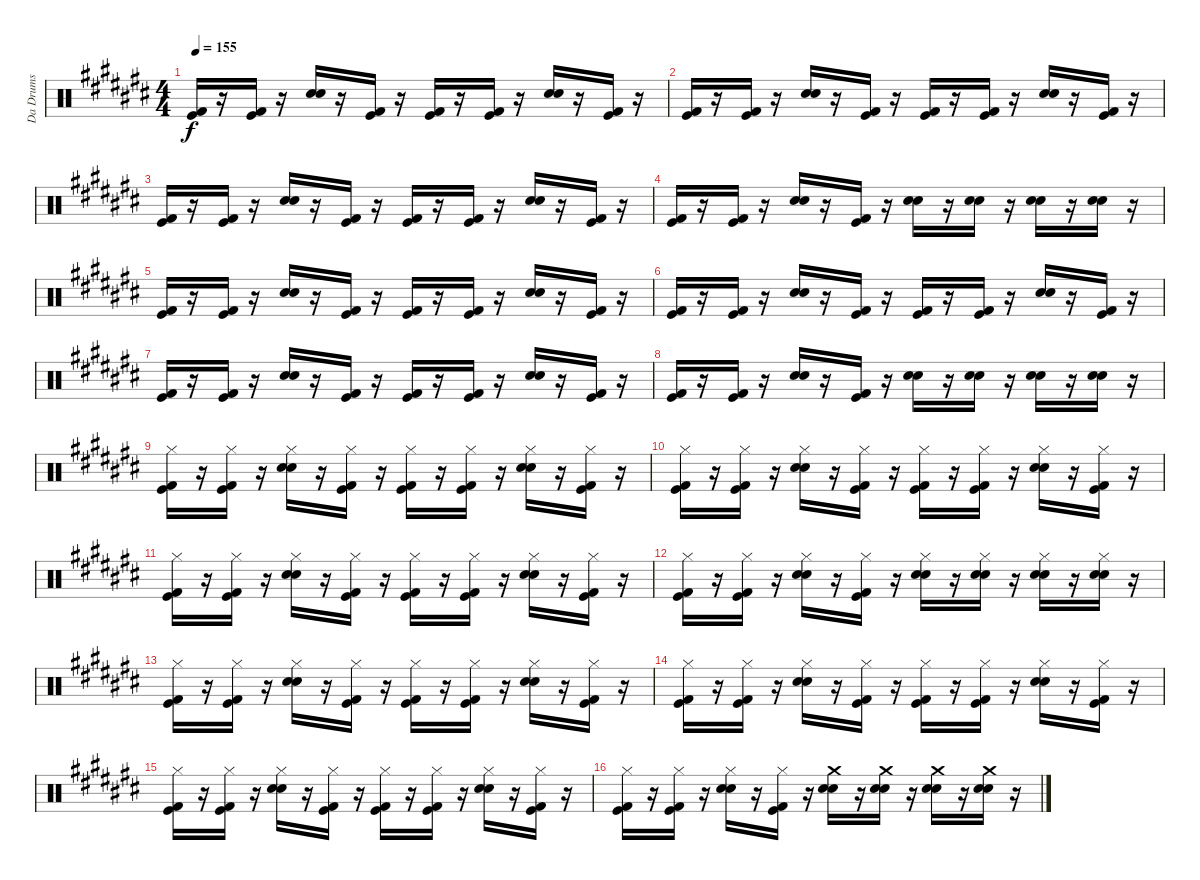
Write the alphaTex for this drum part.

\track ("Da Drums" "Da Drums") {instrument percussion}
\staff {score}
\articulation defaults
\ts (4 4)
\tempo 155
\clef neutral
\ks c#
("Kick (hit)" "Kick (hit) 2").16{dy f} r.16 ("Kick (hit)" "Kick (hit) 2").16 r.16 ("Electric Snare (hit)" "Snare (hit) 2").16 r.16 ("Kick (hit)" "Kick (hit) 2").16 r.16 ("Kick (hit)" "Kick (hit) 2").16 r.16 ("Kick (hit)" "Kick (hit) 2").16 r.16 ("Electric Snare (hit)" "Snare (hit) 2").16 r.16 ("Kick (hit)" "Kick (hit) 2").16 r.16 |
("Kick (hit)" "Kick (hit) 2").16 r.16 ("Kick (hit)" "Kick (hit) 2").16 r.16 ("Electric Snare (hit)" "Snare (hit) 2").16 r.16 ("Kick (hit)" "Kick (hit) 2").16 r.16 ("Kick (hit)" "Kick (hit) 2").16 r.16 ("Kick (hit)" "Kick (hit) 2").16 r.16 ("Electric Snare (hit)" "Snare (hit) 2").16 r.16 ("Kick (hit)" "Kick (hit) 2").16 r.16 |
("Kick (hit)" "Kick (hit) 2").16 r.16 ("Kick (hit)" "Kick (hit) 2").16 r.16 ("Electric Snare (hit)" "Snare (hit) 2").16 r.16 ("Kick (hit)" "Kick (hit) 2").16 r.16 ("Kick (hit)" "Kick (hit) 2").16 r.16 ("Kick (hit)" "Kick (hit) 2").16 r.16 ("Electric Snare (hit)" "Snare (hit) 2").16 r.16 ("Kick (hit)" "Kick (hit) 2").16 r.16 |
("Kick (hit)" "Kick (hit) 2").16 r.16 ("Kick (hit)" "Kick (hit) 2").16 r.16 ("Electric Snare (hit)" "Snare (hit) 2").16 r.16 ("Kick (hit)" "Kick (hit) 2").16 r.16 ("Electric Snare (hit)" "Snare (hit) 2").16 r.16 ("Electric Snare (hit)" "Snare (hit) 2").16 r.16 ("Electric Snare (hit)" "Snare (hit) 2").16 r.16 ("Electric Snare (hit)" "Snare (hit) 2").16 r.16 |
("Kick (hit)" "Kick (hit) 2").16 r.16 ("Kick (hit)" "Kick (hit) 2").16 r.16 ("Electric Snare (hit)" "Snare (hit) 2").16 r.16 ("Kick (hit)" "Kick (hit) 2").16 r.16 ("Kick (hit)" "Kick (hit) 2").16 r.16 ("Kick (hit)" "Kick (hit) 2").16 r.16 ("Electric Snare (hit)" "Snare (hit) 2").16 r.16 ("Kick (hit)" "Kick (hit) 2").16 r.16 |
("Kick (hit)" "Kick (hit) 2").16 r.16 ("Kick (hit)" "Kick (hit) 2").16 r.16 ("Electric Snare (hit)" "Snare (hit) 2").16 r.16 ("Kick (hit)" "Kick (hit) 2").16 r.16 ("Kick (hit)" "Kick (hit) 2").16 r.16 ("Kick (hit)" "Kick (hit) 2").16 r.16 ("Electric Snare (hit)" "Snare (hit) 2").16 r.16 ("Kick (hit)" "Kick (hit) 2").16 r.16 |
("Kick (hit)" "Kick (hit) 2").16 r.16 ("Kick (hit)" "Kick (hit) 2").16 r.16 ("Electric Snare (hit)" "Snare (hit) 2").16 r.16 ("Kick (hit)" "Kick (hit) 2").16 r.16 ("Kick (hit)" "Kick (hit) 2").16 r.16 ("Kick (hit)" "Kick (hit) 2").16 r.16 ("Electric Snare (hit)" "Snare (hit) 2").16 r.16 ("Kick (hit)" "Kick (hit) 2").16 r.16 |
("Kick (hit)" "Kick (hit) 2").16 r.16 ("Kick (hit)" "Kick (hit) 2").16 r.16 ("Electric Snare (hit)" "Snare (hit) 2").16 r.16 ("Kick (hit)" "Kick (hit) 2").16 r.16 ("Electric Snare (hit)" "Snare (hit) 2").16 r.16 ("Electric Snare (hit)" "Snare (hit) 2").16 r.16 ("Electric Snare (hit)" "Snare (hit) 2").16 r.16 ("Electric Snare (hit)" "Snare (hit) 2").16 r.16 |
("Hi-Hat (closed)" "Kick (hit)" "Kick (hit) 2").16 r.16 ("Hi-Hat (closed)" "Kick (hit)" "Kick (hit) 2").16 r.16 ("Hi-Hat (closed)" "Electric Snare (hit)" "Snare (hit) 2").16 r.16 ("Hi-Hat (closed)" "Kick (hit)" "Kick (hit) 2").16 r.16 ("Hi-Hat (closed)" "Kick (hit)" "Kick (hit) 2").16 r.16 ("Hi-Hat (closed)" "Kick (hit)" "Kick (hit) 2").16 r.16 ("Hi-Hat (closed)" "Electric Snare (hit)" "Snare (hit) 2").16 r.16 ("Hi-Hat (closed)" "Kick (hit)" "Kick (hit) 2").16 r.16 |
("Hi-Hat (closed)" "Kick (hit)" "Kick (hit) 2").16 r.16 ("Hi-Hat (closed)" "Kick (hit)" "Kick (hit) 2").16 r.16 ("Hi-Hat (closed)" "Electric Snare (hit)" "Snare (hit) 2").16 r.16 ("Hi-Hat (closed)" "Kick (hit)" "Kick (hit) 2").16 r.16 ("Hi-Hat (closed)" "Kick (hit)" "Kick (hit) 2").16 r.16 ("Hi-Hat (closed)" "Kick (hit)" "Kick (hit) 2").16 r.16 ("Hi-Hat (closed)" "Electric Snare (hit)" "Snare (hit) 2").16 r.16 ("Hi-Hat (closed)" "Kick (hit)" "Kick (hit) 2").16 r.16 |
("Hi-Hat (closed)" "Kick (hit)" "Kick (hit) 2").16 r.16 ("Hi-Hat (closed)" "Kick (hit)" "Kick (hit) 2").16 r.16 ("Hi-Hat (closed)" "Electric Snare (hit)" "Snare (hit) 2").16 r.16 ("Hi-Hat (closed)" "Kick (hit)" "Kick (hit) 2").16 r.16 ("Hi-Hat (closed)" "Kick (hit)" "Kick (hit) 2").16 r.16 ("Hi-Hat (closed)" "Kick (hit)" "Kick (hit) 2").16 r.16 ("Hi-Hat (closed)" "Electric Snare (hit)" "Snare (hit) 2").16 r.16 ("Hi-Hat (closed)" "Kick (hit)" "Kick (hit) 2").16 r.16 |
("Hi-Hat (closed)" "Kick (hit)" "Kick (hit) 2").16 r.16 ("Hi-Hat (closed)" "Kick (hit)" "Kick (hit) 2").16 r.16 ("Hi-Hat (closed)" "Electric Snare (hit)" "Snare (hit) 2").16 r.16 ("Hi-Hat (closed)" "Kick (hit)" "Kick (hit) 2").16 r.16 ("Hi-Hat (closed)" "Electric Snare (hit)" "Snare (hit) 2").16 r.16 ("Hi-Hat (closed)" "Electric Snare (hit)" "Snare (hit) 2").16 r.16 ("Hi-Hat (closed)" "Electric Snare (hit)" "Snare (hit) 2").16 r.16 ("Hi-Hat (closed)" "Electric Snare (hit)" "Snare (hit) 2").16 r.16 |
("Hi-Hat (closed)" "Kick (hit)" "Kick (hit) 2").16 r.16 ("Hi-Hat (closed)" "Kick (hit)" "Kick (hit) 2").16 r.16 ("Hi-Hat (closed)" "Electric Snare (hit)" "Snare (hit) 2").16 r.16 ("Hi-Hat (closed)" "Kick (hit)" "Kick (hit) 2").16 r.16 ("Hi-Hat (closed)" "Kick (hit)" "Kick (hit) 2").16 r.16 ("Hi-Hat (closed)" "Kick (hit)" "Kick (hit) 2").16 r.16 ("Hi-Hat (closed)" "Electric Snare (hit)" "Snare (hit) 2").16 r.16 ("Hi-Hat (closed)" "Kick (hit)" "Kick (hit) 2").16 r.16 |
("Hi-Hat (closed)" "Kick (hit)" "Kick (hit) 2").16 r.16 ("Hi-Hat (closed)" "Kick (hit)" "Kick (hit) 2").16 r.16 ("Hi-Hat (closed)" "Electric Snare (hit)" "Snare (hit) 2").16 r.16 ("Hi-Hat (closed)" "Kick (hit)" "Kick (hit) 2").16 r.16 ("Hi-Hat (closed)" "Kick (hit)" "Kick (hit) 2").16 r.16 ("Hi-Hat (closed)" "Kick (hit)" "Kick (hit) 2").16 r.16 ("Hi-Hat (closed)" "Electric Snare (hit)" "Snare (hit) 2").16 r.16 ("Hi-Hat (closed)" "Kick (hit)" "Kick (hit) 2").16 r.16 |
("Hi-Hat (closed)" "Kick (hit)" "Kick (hit) 2").16 r.16 ("Hi-Hat (closed)" "Kick (hit)" "Kick (hit) 2").16 r.16 ("Hi-Hat (closed)" "Electric Snare (hit)" "Snare (hit) 2").16 r.16 ("Hi-Hat (closed)" "Kick (hit)" "Kick (hit) 2").16 r.16 ("Hi-Hat (closed)" "Kick (hit)" "Kick (hit) 2").16 r.16 ("Hi-Hat (closed)" "Kick (hit)" "Kick (hit) 2").16 r.16 ("Hi-Hat (closed)" "Electric Snare (hit)" "Snare (hit) 2").16 r.16 ("Hi-Hat (closed)" "Kick (hit)" "Kick (hit) 2").16 r.16 |
("Hi-Hat (closed)" "Kick (hit)" "Kick (hit) 2").16 r.16 ("Hi-Hat (closed)" "Kick (hit)" "Kick (hit) 2").16 r.16 ("Hi-Hat (closed)" "Electric Snare (hit)" "Snare (hit) 2").16 r.16 ("Hi-Hat (closed)" "Kick (hit)" "Kick (hit) 2").16 r.16 ("Crash medium (hit)" "Electric Snare (hit)" "Snare (hit) 2").16 r.16 ("Crash medium (hit)" "Electric Snare (hit)" "Snare (hit) 2").16 r.16 ("Crash medium (hit)" "Electric Snare (hit)" "Snare (hit) 2").16 r.16 ("Crash medium (hit)" "Electric Snare (hit)" "Snare (hit) 2").16 r.16
